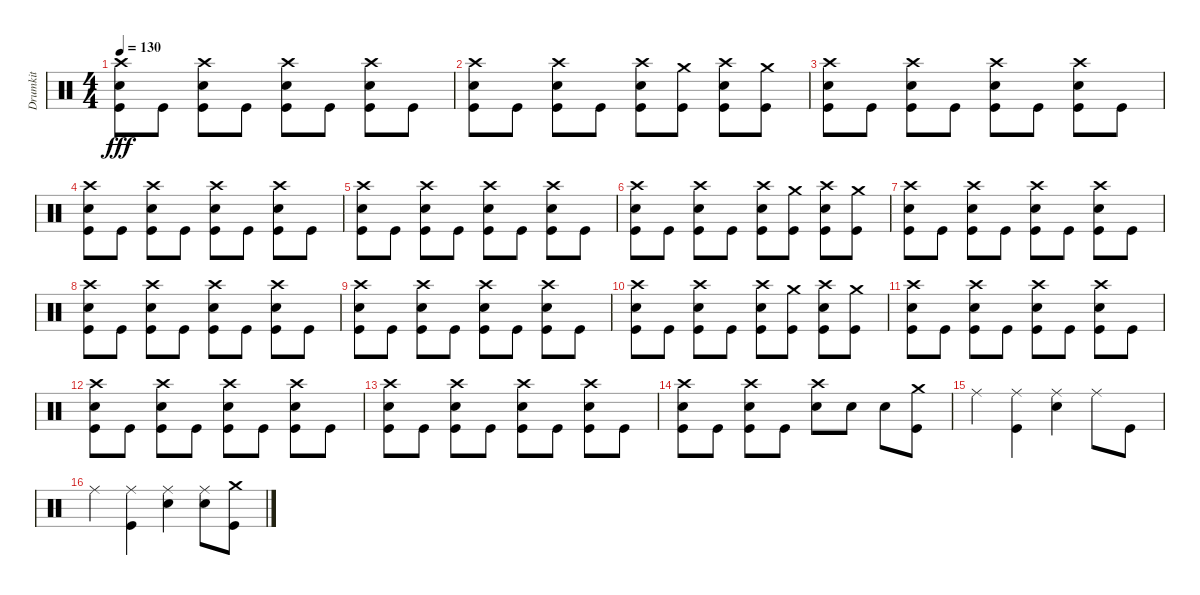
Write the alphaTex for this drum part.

\track ("Drumkit" "Drumkit") {instrument percussion}
\staff {score}
\articulation defaults
\ts (4 4)
\tempo 130
\clef neutral
\ks c
("Kick (hit)" "Snare (hit) 2" "Crash high (hit)").8{dy fff} "Kick (hit)".8 ("Kick (hit)" "Snare (hit) 2" "Crash high (hit)").8 "Kick (hit)".8 ("Kick (hit)" "Snare (hit) 2" "Crash high (hit)").8 "Kick (hit)".8 ("Kick (hit)" "Snare (hit) 2" "Crash high (hit)").8 "Kick (hit)".8 |
("Kick (hit)" "Snare (hit) 2" "Crash high (hit)").8 "Kick (hit)".8 ("Kick (hit)" "Snare (hit) 2" "Crash high (hit)").8 "Kick (hit)".8 ("Kick (hit)" "Snare (hit) 2" "Crash high (hit)").8 ("Kick (hit)" "Crash medium (hit)").8 ("Kick (hit)" "Snare (hit) 2" "Crash high (hit)").8 ("Kick (hit)" "Crash medium (hit)").8 |
("Kick (hit)" "Snare (hit) 2" "Crash high (hit)").8 "Kick (hit)".8 ("Kick (hit)" "Snare (hit) 2" "Crash high (hit)").8 "Kick (hit)".8 ("Kick (hit)" "Snare (hit) 2" "Crash high (hit)").8 "Kick (hit)".8 ("Kick (hit)" "Snare (hit) 2" "Crash high (hit)").8 "Kick (hit)".8 |
("Kick (hit)" "Snare (hit) 2" "Crash high (hit)").8 "Kick (hit)".8 ("Kick (hit)" "Snare (hit) 2" "Crash high (hit)").8 "Kick (hit)".8 ("Kick (hit)" "Snare (hit) 2" "Crash high (hit)").8 "Kick (hit)".8 ("Kick (hit)" "Snare (hit) 2" "Crash high (hit)").8 "Kick (hit)".8 |
("Kick (hit)" "Snare (hit) 2" "Crash high (hit)").8 "Kick (hit)".8 ("Kick (hit)" "Snare (hit) 2" "Crash high (hit)").8 "Kick (hit)".8 ("Kick (hit)" "Snare (hit) 2" "Crash high (hit)").8 "Kick (hit)".8 ("Kick (hit)" "Snare (hit) 2" "Crash high (hit)").8 "Kick (hit)".8 |
("Kick (hit)" "Snare (hit) 2" "Crash high (hit)").8 "Kick (hit)".8 ("Kick (hit)" "Snare (hit) 2" "Crash high (hit)").8 "Kick (hit)".8 ("Kick (hit)" "Snare (hit) 2" "Crash high (hit)").8 ("Kick (hit)" "Crash medium (hit)").8 ("Kick (hit)" "Snare (hit) 2" "Crash high (hit)").8 ("Kick (hit)" "Crash medium (hit)").8 |
("Kick (hit)" "Snare (hit) 2" "Crash high (hit)").8 "Kick (hit)".8 ("Kick (hit)" "Snare (hit) 2" "Crash high (hit)").8 "Kick (hit)".8 ("Kick (hit)" "Snare (hit) 2" "Crash high (hit)").8 "Kick (hit)".8 ("Kick (hit)" "Snare (hit) 2" "Crash high (hit)").8 "Kick (hit)".8 |
("Kick (hit)" "Snare (hit) 2" "Crash high (hit)").8 "Kick (hit)".8 ("Kick (hit)" "Snare (hit) 2" "Crash high (hit)").8 "Kick (hit)".8 ("Kick (hit)" "Snare (hit) 2" "Crash high (hit)").8 "Kick (hit)".8 ("Kick (hit)" "Snare (hit) 2" "Crash high (hit)").8 "Kick (hit)".8 |
("Kick (hit)" "Snare (hit) 2" "Crash high (hit)").8 "Kick (hit)".8 ("Kick (hit)" "Snare (hit) 2" "Crash high (hit)").8 "Kick (hit)".8 ("Kick (hit)" "Snare (hit) 2" "Crash high (hit)").8 "Kick (hit)".8 ("Kick (hit)" "Snare (hit) 2" "Crash high (hit)").8 "Kick (hit)".8 |
("Kick (hit)" "Snare (hit) 2" "Crash high (hit)").8 "Kick (hit)".8 ("Kick (hit)" "Snare (hit) 2" "Crash high (hit)").8 "Kick (hit)".8 ("Kick (hit)" "Snare (hit) 2" "Crash high (hit)").8 ("Kick (hit)" "Crash medium (hit)").8 ("Kick (hit)" "Snare (hit) 2" "Crash high (hit)").8 ("Kick (hit)" "Crash medium (hit)").8 |
("Kick (hit)" "Snare (hit) 2" "Crash high (hit)").8 "Kick (hit)".8 ("Kick (hit)" "Snare (hit) 2" "Crash high (hit)").8 "Kick (hit)".8 ("Kick (hit)" "Snare (hit) 2" "Crash high (hit)").8 "Kick (hit)".8 ("Kick (hit)" "Snare (hit) 2" "Crash high (hit)").8 "Kick (hit)".8 |
("Kick (hit)" "Snare (hit) 2" "Crash high (hit)").8 "Kick (hit)".8 ("Kick (hit)" "Snare (hit) 2" "Crash high (hit)").8 "Kick (hit)".8 ("Kick (hit)" "Snare (hit) 2" "Crash high (hit)").8 "Kick (hit)".8 ("Kick (hit)" "Snare (hit) 2" "Crash high (hit)").8 "Kick (hit)".8 |
("Kick (hit)" "Snare (hit) 2" "Crash high (hit)").8 "Kick (hit)".8 ("Kick (hit)" "Snare (hit) 2" "Crash high (hit)").8 "Kick (hit)".8 ("Kick (hit)" "Snare (hit) 2" "Crash high (hit)").8 "Kick (hit)".8 ("Kick (hit)" "Snare (hit) 2" "Crash high (hit)").8 "Kick (hit)".8 |
("Kick (hit)" "Snare (hit) 2" "Crash high (hit)").8 "Kick (hit)".8 ("Kick (hit)" "Snare (hit) 2" "Crash high (hit)").8 "Kick (hit)".8 ("Snare (hit) 2" "Crash high (hit)").8 "Snare (hit) 2".8 "Snare (hit) 2".8 ("Crash medium (hit)" "Kick (hit)").8 |
"Ride (middle)".4 ("Ride (middle)" "Kick (hit)").4 ("Ride (middle)" "Snare (hit) 2").4 "Ride (middle)".8 "Kick (hit)".8 |
"Ride (middle)".4 ("Ride (middle)" "Kick (hit)").4 ("Ride (middle)" "Snare (hit) 2").4 ("Ride (middle)" "Snare (hit) 2").8 ("Kick (hit)" "Crash medium (hit)").8
